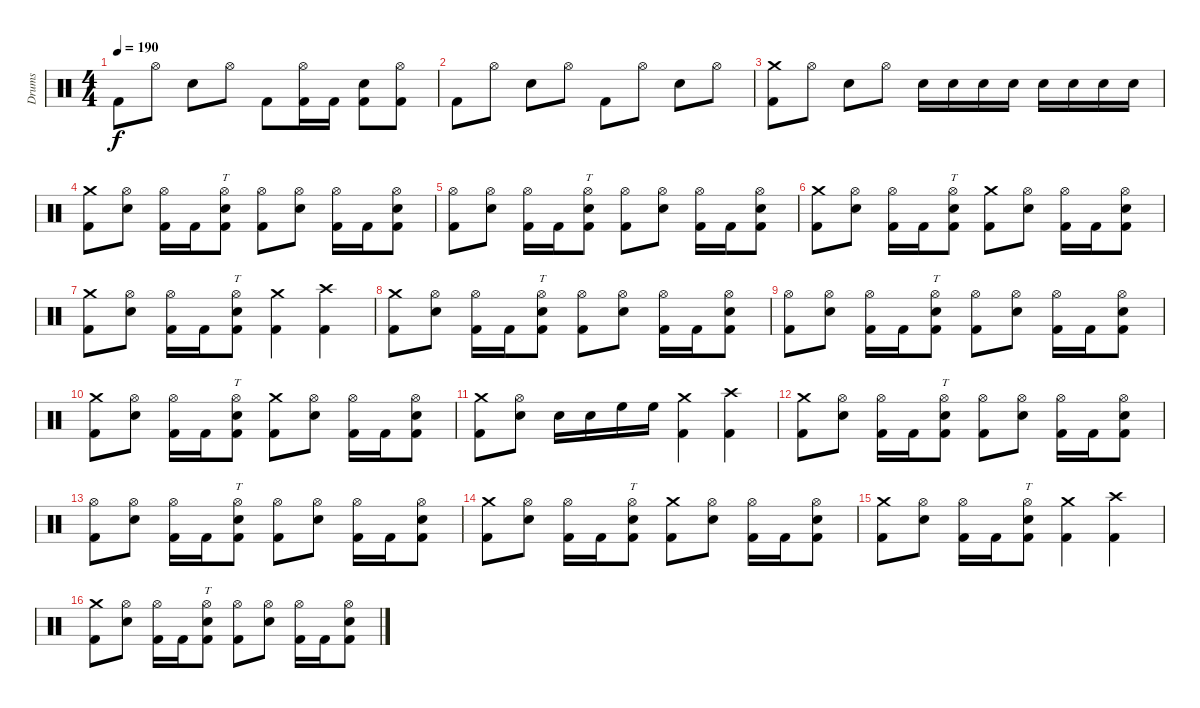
\track ("Drums" "Drums") {instrument percussion}
\staff {score}
\articulation defaults
\ts (4 4)
\tempo 190
\clef neutral
\ks c "Kick (hit) 2".8{dy f} "Hi-Hat (open)".8 "Electric Snare (hit)".8 "Hi-Hat (open)".8 "Kick (hit) 2".8
("Hi-Hat (open)" "Kick (hit) 2").16 "Kick (hit) 2".16 ("Electric Snare (hit)" "Kick (hit) 2").8 ("Hi-Hat (open)" "Kick (hit) 2").8 |
"Kick (hit) 2".8 "Hi-Hat (open)".8 "Electric Snare (hit)".8 "Hi-Hat (open)".8 "Kick (hit) 2".8 "Hi-Hat (open)".8 "Electric Snare (hit)".8 "Hi-Hat (open)".8 |
("Crash medium (hit)" "Kick (hit) 2").8 "Hi-Hat (open)".8 "Electric Snare (hit)".8 "Hi-Hat (open)".8 "Electric Snare (hit)".16 "Electric Snare (hit)".16 "Electric Snare (hit)".16 "Electric Snare (hit)".16 "Electric Snare (hit)".16 "Electric Snare (hit)".16 "Electric Snare (hit)".16 "Electric Snare (hit)".16 |
("Crash medium (hit)" "Kick (hit) 2").8 ("Hi-Hat (open)" "Electric Snare (hit)").8 ("Hi-Hat (open)" "Kick (hit) 2").16 "Kick (hit) 2".16 ("Hi-Hat (open)" "Electric Snare (hit)" "Kick (hit) 2").8{tt} ("Hi-Hat (open)" "Kick (hit) 2").8 ("Hi-Hat (open)" "Electric Snare (hit)").8 ("Hi-Hat (open)" "Kick (hit) 2").16 "Kick (hit) 2".16 ("Hi-Hat (open)" "Electric Snare (hit)" "Kick (hit) 2").8 |
("Hi-Hat (open)" "Kick (hit) 2").8 ("Hi-Hat (open)" "Electric Snare (hit)").8 ("Hi-Hat (open)" "Kick (hit) 2").16 "Kick (hit) 2".16 ("Hi-Hat (open)" "Electric Snare (hit)" "Kick (hit) 2").8{tt} ("Hi-Hat (open)" "Kick (hit) 2").8 ("Hi-Hat (open)" "Electric Snare (hit)").8 ("Hi-Hat (open)" "Kick (hit) 2").16 "Kick (hit) 2".16 ("Hi-Hat (open)" "Electric Snare (hit)" "Kick (hit) 2").8 |
("Crash medium (hit)" "Kick (hit) 2").8 ("Hi-Hat (open)" "Electric Snare (hit)").8 ("Hi-Hat (open)" "Kick (hit) 2").16 "Kick (hit) 2".16 ("Hi-Hat (open)" "Electric Snare (hit)" "Kick (hit) 2").8{tt} ("Crash medium (hit)" "Kick (hit) 2").8 ("Hi-Hat (open)" "Electric Snare (hit)").8 ("Hi-Hat (open)" "Kick (hit) 2").16 "Kick (hit) 2".16 ("Hi-Hat (open)" "Electric Snare (hit)" "Kick (hit) 2").8 |
("Crash medium (hit)" "Kick (hit) 2").8 ("Hi-Hat (open)" "Electric Snare (hit)").8 ("Hi-Hat (open)" "Kick (hit) 2").16 "Kick (hit) 2".16 ("Hi-Hat (open)" "Electric Snare (hit)" "Kick (hit) 2").8{tt} ("Crash medium (hit)" "Kick (hit) 2").4 ("Crash high (hit)" "Kick (hit) 2").4 |
("Crash medium (hit)" "Kick (hit) 2").8 ("Hi-Hat (open)" "Electric Snare (hit)").8 ("Hi-Hat (open)" "Kick (hit) 2").16 "Kick (hit) 2".16 ("Hi-Hat (open)" "Electric Snare (hit)" "Kick (hit) 2").8{tt} ("Hi-Hat (open)" "Kick (hit) 2").8 ("Hi-Hat (open)" "Electric Snare (hit)").8 ("Hi-Hat (open)" "Kick (hit) 2").16 "Kick (hit) 2".16 ("Hi-Hat (open)" "Electric Snare (hit)" "Kick (hit) 2").8 |
("Hi-Hat (open)" "Kick (hit) 2").8 ("Hi-Hat (open)" "Electric Snare (hit)").8 ("Hi-Hat (open)" "Kick (hit) 2").16 "Kick (hit) 2".16 ("Hi-Hat (open)" "Electric Snare (hit)" "Kick (hit) 2").8{tt} ("Hi-Hat (open)" "Kick (hit) 2").8 ("Hi-Hat (open)" "Electric Snare (hit)").8 ("Hi-Hat (open)" "Kick (hit) 2").16 "Kick (hit) 2".16 ("Hi-Hat (open)" "Electric Snare (hit)" "Kick (hit) 2").8 |
("Crash medium (hit)" "Kick (hit) 2").8 ("Hi-Hat (open)" "Electric Snare (hit)").8 ("Hi-Hat (open)" "Kick (hit) 2").16 "Kick (hit) 2".16 ("Hi-Hat (open)" "Electric Snare (hit)" "Kick (hit) 2").8{tt} ("Crash medium (hit)" "Kick (hit) 2").8 ("Hi-Hat (open)" "Electric Snare (hit)").8 ("Hi-Hat (open)" "Kick (hit) 2").16 "Kick (hit) 2".16 ("Hi-Hat (open)" "Electric Snare (hit)" "Kick (hit) 2").8 |
("Crash medium (hit)" "Kick (hit) 2").8 ("Hi-Hat (open)" "Electric Snare (hit)").8 "Electric Snare (hit)".16 "Electric Snare (hit)".16 "High Floor Tom (hit)".16 "High Floor Tom (hit)".16 ("Crash medium (hit)" "Kick (hit) 2").4 ("Crash high (hit)" "Kick (hit) 2").4 |
("Crash medium (hit)" "Kick (hit) 2").8 ("Hi-Hat (open)" "Electric Snare (hit)").8 ("Hi-Hat (open)" "Kick (hit) 2").16 "Kick (hit) 2".16 ("Hi-Hat (open)" "Electric Snare (hit)" "Kick (hit) 2").8{tt} ("Hi-Hat (open)" "Kick (hit) 2").8 ("Hi-Hat (open)" "Electric Snare (hit)").8 ("Hi-Hat (open)" "Kick (hit) 2").16 "Kick (hit) 2".16 ("Hi-Hat (open)" "Electric Snare (hit)" "Kick (hit) 2").8 |
("Hi-Hat (open)" "Kick (hit) 2").8 ("Hi-Hat (open)" "Electric Snare (hit)").8 ("Hi-Hat (open)" "Kick (hit) 2").16 "Kick (hit) 2".16 ("Hi-Hat (open)" "Electric Snare (hit)" "Kick (hit) 2").8{tt} ("Hi-Hat (open)" "Kick (hit) 2").8 ("Hi-Hat (open)" "Electric Snare (hit)").8 ("Hi-Hat (open)" "Kick (hit) 2").16 "Kick (hit) 2".16 ("Hi-Hat (open)" "Electric Snare (hit)" "Kick (hit) 2").8 |
("Crash medium (hit)" "Kick (hit) 2").8 ("Hi-Hat (open)" "Electric Snare (hit)").8 ("Hi-Hat (open)" "Kick (hit) 2").16 "Kick (hit) 2".16 ("Hi-Hat (open)" "Electric Snare (hit)" "Kick (hit) 2").8{tt} ("Crash medium (hit)" "Kick (hit) 2").8 ("Hi-Hat (open)" "Electric Snare (hit)").8 ("Hi-Hat (open)" "Kick (hit) 2").16 "Kick (hit) 2".16 ("Hi-Hat (open)" "Electric Snare (hit)" "Kick (hit) 2").8 |
("Crash medium (hit)" "Kick (hit) 2").8 ("Hi-Hat (open)" "Electric Snare (hit)").8 ("Hi-Hat (open)" "Kick (hit) 2").16 "Kick (hit) 2".16 ("Hi-Hat (open)" "Electric Snare (hit)" "Kick (hit) 2").8{tt} ("Crash medium (hit)" "Kick (hit) 2").4 ("Crash high (hit)" "Kick (hit) 2").4 |
("Crash medium (hit)" "Kick (hit) 2").8 ("Hi-Hat (open)" "Electric Snare (hit)").8 ("Hi-Hat (open)" "Kick (hit) 2").16 "Kick (hit) 2".16 ("Hi-Hat (open)" "Electric Snare (hit)" "Kick (hit) 2").8{tt} ("Hi-Hat (open)" "Kick (hit) 2").8 ("Hi-Hat (open)" "Electric Snare (hit)").8 ("Hi-Hat (open)" "Kick (hit) 2").16 "Kick (hit) 2".16 ("Hi-Hat (open)" "Electric Snare (hit)" "Kick (hit) 2").8
